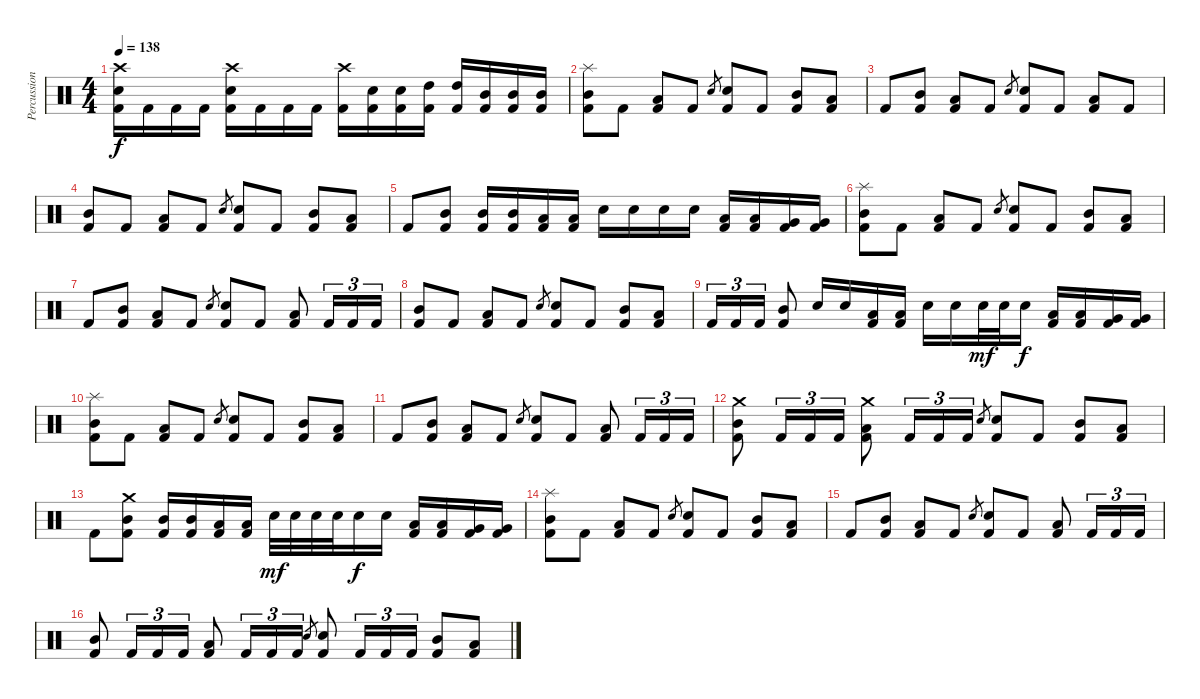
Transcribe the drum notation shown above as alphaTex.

\track ("Percussion" "Percussion") {instrument percussion}
\staff {score}
\articulation defaults
\ts (4 4)
\tempo 138
\clef neutral
\ks c
("Crash high (hit)" "Electric Snare (hit)" "Kick (hit) 2").16{dy f} "Kick (hit) 2".16 "Kick (hit) 2".16 "Kick (hit) 2".16 ("Crash high (hit)" "Electric Snare (hit)" "Kick (hit) 2").16 "Kick (hit) 2".16 "Kick (hit) 2".16 "Kick (hit) 2".16 ("Crash high (hit)" "Kick (hit) 2").16 ("Electric Snare (hit)" "Kick (hit) 2").16 ("Electric Snare (hit)" "Kick (hit) 2").16 ("High Tom (hit)" "Kick (hit) 2").16 ("High Tom (hit)" "Kick (hit) 2").16 ("Mid Tom (hit)" "Kick (hit) 2").16 ("Mid Tom (hit)" "Kick (hit) 2").16 ("Mid Tom (hit)" "Kick (hit) 2").16 |
("Splash (hit)" "Mid Tom (hit)" "Kick (hit) 2").8 "Kick (hit) 2".8 ("Low Tom (hit)" "Kick (hit) 2").8 "Kick (hit) 2".8 "Electric Snare (hit)".8{gr} ("Electric Snare (hit)" "Kick (hit) 2").8 "Kick (hit) 2".8 ("Mid Tom (hit)" "Kick (hit) 2").8 ("Low Tom (hit)" "Kick (hit) 2").8 |
"Kick (hit) 2".8 ("Mid Tom (hit)" "Kick (hit) 2").8 ("Low Tom (hit)" "Kick (hit) 2").8 "Kick (hit) 2".8 "Electric Snare (hit)".8{gr} ("Electric Snare (hit)" "Kick (hit) 2").8 "Kick (hit) 2".8 ("Low Tom (hit)" "Kick (hit) 2").8 "Kick (hit) 2".8 |
("Mid Tom (hit)" "Kick (hit) 2").8 "Kick (hit) 2".8 ("Low Tom (hit)" "Kick (hit) 2").8 "Kick (hit) 2".8 "Electric Snare (hit)".8{gr} ("Electric Snare (hit)" "Kick (hit) 2").8 "Kick (hit) 2".8 ("Mid Tom (hit)" "Kick (hit) 2").8 ("Low Tom (hit)" "Kick (hit) 2").8 |
"Kick (hit) 2".8 ("Mid Tom (hit)" "Kick (hit) 2").8 ("Mid Tom (hit)" "Kick (hit) 2").16 ("Mid Tom (hit)" "Kick (hit) 2").16 ("Low Tom (hit)" "Kick (hit) 2").16 ("Low Tom (hit)" "Kick (hit) 2").16 "Electric Snare (hit)".16 "Electric Snare (hit)".16 "Electric Snare (hit)".16 "Electric Snare (hit)".16 ("Low Tom (hit)" "Kick (hit) 2").16 ("Low Tom (hit)" "Kick (hit) 2").16 ("Very Low Tom (hit)" "Kick (hit) 2").16 ("Very Low Tom (hit)" "Kick (hit) 2").16 |
("Splash (hit)" "Mid Tom (hit)" "Kick (hit) 2").8 "Kick (hit) 2".8 ("Low Tom (hit)" "Kick (hit) 2").8 "Kick (hit) 2".8 "Electric Snare (hit)".8{gr} ("Electric Snare (hit)" "Kick (hit) 2").8 "Kick (hit) 2".8 ("Mid Tom (hit)" "Kick (hit) 2").8 ("Low Tom (hit)" "Kick (hit) 2").8 |
"Kick (hit) 2".8 ("Mid Tom (hit)" "Kick (hit) 2").8 ("Low Tom (hit)" "Kick (hit) 2").8 "Kick (hit) 2".8 "Electric Snare (hit)".8{gr} ("Electric Snare (hit)" "Kick (hit) 2").8 "Kick (hit) 2".8 ("Low Tom (hit)" "Kick (hit) 2").8 "Kick (hit) 2".16{tu (3 2)} "Kick (hit) 2".16{tu (3 2)} "Kick (hit) 2".16{tu (3 2)} |
("Mid Tom (hit)" "Kick (hit) 2").8 "Kick (hit) 2".8 ("Low Tom (hit)" "Kick (hit) 2").8 "Kick (hit) 2".8 "Electric Snare (hit)".8{gr} ("Electric Snare (hit)" "Kick (hit) 2").8 "Kick (hit) 2".8 ("Mid Tom (hit)" "Kick (hit) 2").8 ("Low Tom (hit)" "Kick (hit) 2").8 |
"Kick (hit) 2".16{tu (3 2)} "Kick (hit) 2".16{tu (3 2)} "Kick (hit) 2".16{tu (3 2)} ("Mid Tom (hit)" "Kick (hit) 2").8 "Electric Snare (hit)".16 "Electric Snare (hit)".16 ("Low Tom (hit)" "Kick (hit) 2").16 ("Low Tom (hit)" "Kick (hit) 2").16 "Electric Snare (hit)".16 "Electric Snare (hit)".16 "Electric Snare (hit)".32{dy mf} "Electric Snare (hit)".32 "Electric Snare (hit)".16{dy f} ("Low Tom (hit)" "Kick (hit) 2").16 ("Low Tom (hit)" "Kick (hit) 2").16 ("Very Low Tom (hit)" "Kick (hit) 2").16 ("Very Low Tom (hit)" "Kick (hit) 2").16 |
("Splash (hit)" "Mid Tom (hit)" "Kick (hit) 2").8 "Kick (hit) 2".8 ("Low Tom (hit)" "Kick (hit) 2").8 "Kick (hit) 2".8 "Electric Snare (hit)".8{gr} ("Electric Snare (hit)" "Kick (hit) 2").8 "Kick (hit) 2".8 ("Mid Tom (hit)" "Kick (hit) 2").8 ("Low Tom (hit)" "Kick (hit) 2").8 |
"Kick (hit) 2".8 ("Mid Tom (hit)" "Kick (hit) 2").8 ("Low Tom (hit)" "Kick (hit) 2").8 "Kick (hit) 2".8 "Electric Snare (hit)".8{gr} ("Electric Snare (hit)" "Kick (hit) 2").8 "Kick (hit) 2".8 ("Low Tom (hit)" "Kick (hit) 2").8 "Kick (hit) 2".16{tu (3 2)} "Kick (hit) 2".16{tu (3 2)} "Kick (hit) 2".16{tu (3 2)} |
("Crash medium (hit)" "Mid Tom (hit)" "Kick (hit) 2").8 "Kick (hit) 2".16{tu (3 2)} "Kick (hit) 2".16{tu (3 2)} "Kick (hit) 2".16{tu (3 2)} ("Crash medium (hit)" "Low Tom (hit)" "Kick (hit) 2").8 "Kick (hit) 2".16{tu (3 2)} "Kick (hit) 2".16{tu (3 2)} "Kick (hit) 2".16{tu (3 2)} "Electric Snare (hit)".8{gr} ("Electric Snare (hit)" "Kick (hit) 2").8 "Kick (hit) 2".8 ("Mid Tom (hit)" "Kick (hit) 2").8 ("Low Tom (hit)" "Kick (hit) 2").8 |
"Kick (hit) 2".8 ("Crash medium (hit)" "Mid Tom (hit)" "Kick (hit) 2").8 ("Mid Tom (hit)" "Kick (hit) 2").16 ("Mid Tom (hit)" "Kick (hit) 2").16 ("Low Tom (hit)" "Kick (hit) 2").16 ("Low Tom (hit)" "Kick (hit) 2").16 "Electric Snare (hit)".32{dy mf} "Electric Snare (hit)".32 "Electric Snare (hit)".32 "Electric Snare (hit)".32 "Electric Snare (hit)".16{dy f} "Electric Snare (hit)".16 ("Low Tom (hit)" "Kick (hit) 2").16 ("Low Tom (hit)" "Kick (hit) 2").16 ("Very Low Tom (hit)" "Kick (hit) 2").16 ("Very Low Tom (hit)" "Kick (hit) 2").16 |
("Splash (hit)" "Mid Tom (hit)" "Kick (hit) 2").8 "Kick (hit) 2".8 ("Low Tom (hit)" "Kick (hit) 2").8 "Kick (hit) 2".8 "Electric Snare (hit)".8{gr} ("Electric Snare (hit)" "Kick (hit) 2").8 "Kick (hit) 2".8 ("Mid Tom (hit)" "Kick (hit) 2").8 ("Low Tom (hit)" "Kick (hit) 2").8 |
"Kick (hit) 2".8 ("Mid Tom (hit)" "Kick (hit) 2").8 ("Low Tom (hit)" "Kick (hit) 2").8 "Kick (hit) 2".8 "Electric Snare (hit)".8{gr} ("Electric Snare (hit)" "Kick (hit) 2").8 "Kick (hit) 2".8 ("Low Tom (hit)" "Kick (hit) 2").8 "Kick (hit) 2".16{tu (3 2)} "Kick (hit) 2".16{tu (3 2)} "Kick (hit) 2".16{tu (3 2)} |
("Mid Tom (hit)" "Kick (hit) 2").8 "Kick (hit) 2".16{tu (3 2)} "Kick (hit) 2".16{tu (3 2)} "Kick (hit) 2".16{tu (3 2)} ("Low Tom (hit)" "Kick (hit) 2").8 "Kick (hit) 2".16{tu (3 2)} "Kick (hit) 2".16{tu (3 2)} "Kick (hit) 2".16{tu (3 2)} "Electric Snare (hit)".8{gr} ("Electric Snare (hit)" "Kick (hit) 2").8 "Kick (hit) 2".16{tu (3 2)} "Kick (hit) 2".16{tu (3 2)} "Kick (hit) 2".16{tu (3 2)} ("Mid Tom (hit)" "Kick (hit) 2").8 ("Low Tom (hit)" "Kick (hit) 2").8
